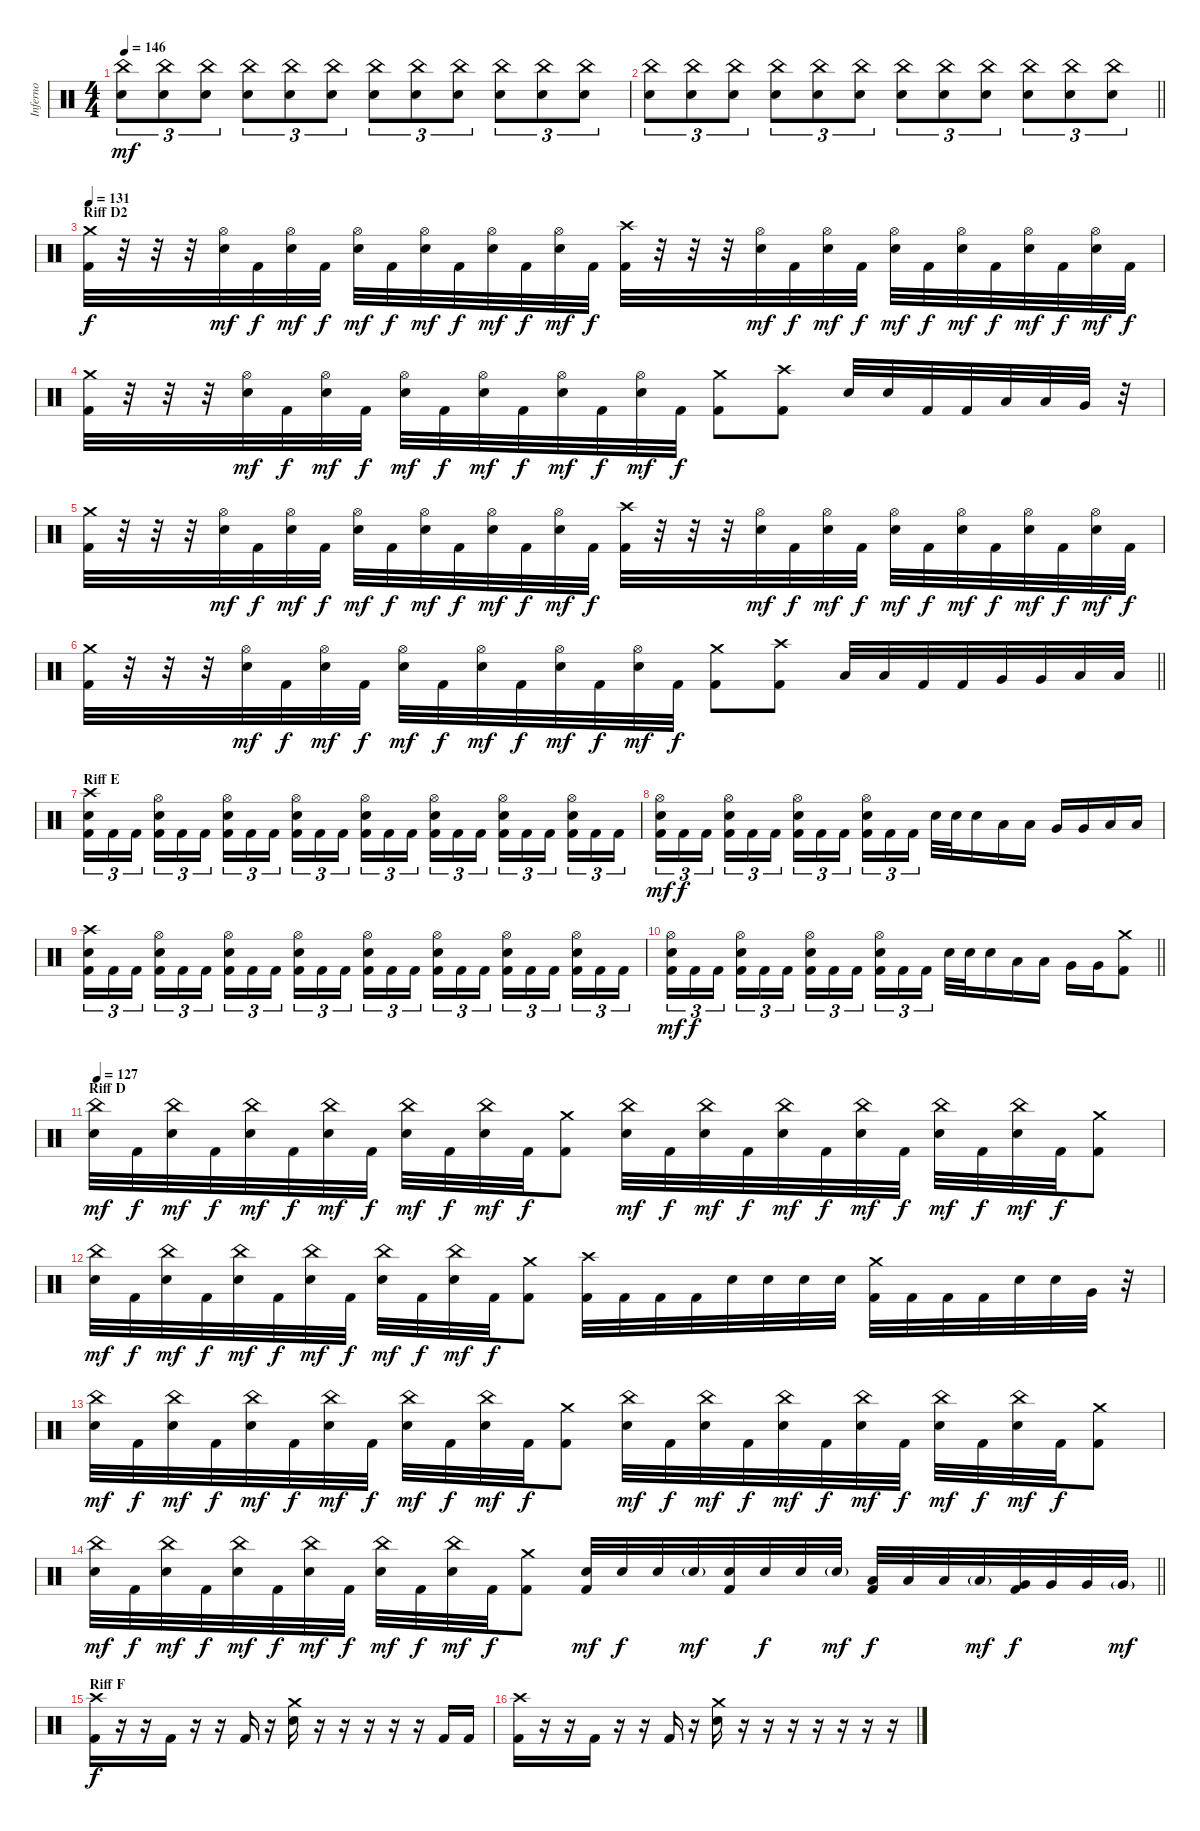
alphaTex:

\track ("Inferno" "Inferno") {instrument percussion}
\staff {score}
\articulation defaults
\ts (4 4)
\tempo 146
\clef neutral
\ks c
("China (hit)" "Snare (hit) 2").8{tu (3 2) dy mf} ("China (hit)" "Snare (hit) 2").8{tu (3 2)} ("China (hit)" "Snare (hit) 2").8{tu (3 2)} ("China (hit)" "Snare (hit) 2").8{tu (3 2)} ("China (hit)" "Snare (hit) 2").8{tu (3 2)} ("China (hit)" "Snare (hit) 2").8{tu (3 2)} ("China (hit)" "Snare (hit) 2").8{tu (3 2)} ("China (hit)" "Snare (hit) 2").8{tu (3 2)} ("China (hit)" "Snare (hit) 2").8{tu (3 2)} ("China (hit)" "Snare (hit) 2").8{tu (3 2)} ("China (hit)" "Snare (hit) 2").8{tu (3 2)} ("China (hit)" "Snare (hit) 2").8{tu (3 2)} |
\barLineRight lightlight
("China (hit)" "Snare (hit) 2").8{tu (3 2)} ("China (hit)" "Snare (hit) 2").8{tu (3 2)} ("China (hit)" "Snare (hit) 2").8{tu (3 2)} ("China (hit)" "Snare (hit) 2").8{tu (3 2)} ("China (hit)" "Snare (hit) 2").8{tu (3 2)} ("China (hit)" "Snare (hit) 2").8{tu (3 2)} ("China (hit)" "Snare (hit) 2").8{tu (3 2)} ("China (hit)" "Snare (hit) 2").8{tu (3 2)} ("China (hit)" "Snare (hit) 2").8{tu (3 2)} ("China (hit)" "Snare (hit) 2").8{tu (3 2)} ("China (hit)" "Snare (hit) 2").8{tu (3 2)} ("China (hit)" "Snare (hit) 2").8{tu (3 2)} |
\section ("" "Riff D2")
\tempo 131
("Crash medium (hit)" "Kick (hit) 2").32{dy f} r.32 r.32 r.32 ("Hi-Hat (open)" "Snare (hit) 2").32{dy mf} "Kick (hit) 2".32{dy f} ("Hi-Hat (open)" "Snare (hit) 2").32{dy mf} "Kick (hit) 2".32{dy f} ("Hi-Hat (open)" "Snare (hit) 2").32{dy mf} "Kick (hit) 2".32{dy f} ("Hi-Hat (open)" "Snare (hit) 2").32{dy mf} "Kick (hit) 2".32{dy f} ("Hi-Hat (open)" "Snare (hit) 2").32{dy mf} "Kick (hit) 2".32{dy f} ("Hi-Hat (open)" "Snare (hit) 2").32{dy mf} "Kick (hit) 2".32{dy f} ("Crash high (hit)" "Kick (hit) 2").32 r.32 r.32 r.32 ("Hi-Hat (open)" "Snare (hit) 2").32{dy mf} "Kick (hit) 2".32{dy f} ("Hi-Hat (open)" "Snare (hit) 2").32{dy mf} "Kick (hit) 2".32{dy f} ("Hi-Hat (open)" "Snare (hit) 2").32{dy mf} "Kick (hit) 2".32{dy f} ("Hi-Hat (open)" "Snare (hit) 2").32{dy mf} "Kick (hit) 2".32{dy f} ("Hi-Hat (open)" "Snare (hit) 2").32{dy mf} "Kick (hit) 2".32{dy f} ("Hi-Hat (open)" "Snare (hit) 2").32{dy mf} "Kick (hit) 2".32{dy f} |
("Crash medium (hit)" "Kick (hit) 2").32 r.32 r.32 r.32 ("Hi-Hat (open)" "Snare (hit) 2").32{dy mf} "Kick (hit) 2".32{dy f} ("Hi-Hat (open)" "Snare (hit) 2").32{dy mf} "Kick (hit) 2".32{dy f} ("Hi-Hat (open)" "Snare (hit) 2").32{dy mf} "Kick (hit) 2".32{dy f} ("Hi-Hat (open)" "Snare (hit) 2").32{dy mf} "Kick (hit) 2".32{dy f} ("Hi-Hat (open)" "Snare (hit) 2").32{dy mf} "Kick (hit) 2".32{dy f} ("Hi-Hat (open)" "Snare (hit) 2").32{dy mf} "Kick (hit) 2".32{dy f} ("Crash medium (hit)" "Kick (hit) 2").8 ("Crash high (hit)" "Kick (hit) 2").8 "Snare (hit) 2".32 "Snare (hit) 2".32 "Kick (hit) 2".32 "Kick (hit) 2".32 "Low Tom (hit)".32 "Low Tom (hit)".32 "Very Low Tom (hit)".32 r.32 |
("Crash medium (hit)" "Kick (hit) 2").32 r.32 r.32 r.32 ("Hi-Hat (open)" "Snare (hit) 2").32{dy mf} "Kick (hit) 2".32{dy f} ("Hi-Hat (open)" "Snare (hit) 2").32{dy mf} "Kick (hit) 2".32{dy f} ("Hi-Hat (open)" "Snare (hit) 2").32{dy mf} "Kick (hit) 2".32{dy f} ("Hi-Hat (open)" "Snare (hit) 2").32{dy mf} "Kick (hit) 2".32{dy f} ("Hi-Hat (open)" "Snare (hit) 2").32{dy mf} "Kick (hit) 2".32{dy f} ("Hi-Hat (open)" "Snare (hit) 2").32{dy mf} "Kick (hit) 2".32{dy f} ("Crash high (hit)" "Kick (hit) 2").32 r.32 r.32 r.32 ("Hi-Hat (open)" "Snare (hit) 2").32{dy mf} "Kick (hit) 2".32{dy f} ("Hi-Hat (open)" "Snare (hit) 2").32{dy mf} "Kick (hit) 2".32{dy f} ("Hi-Hat (open)" "Snare (hit) 2").32{dy mf} "Kick (hit) 2".32{dy f} ("Hi-Hat (open)" "Snare (hit) 2").32{dy mf} "Kick (hit) 2".32{dy f} ("Hi-Hat (open)" "Snare (hit) 2").32{dy mf} "Kick (hit) 2".32{dy f} ("Hi-Hat (open)" "Snare (hit) 2").32{dy mf} "Kick (hit) 2".32{dy f} |
\barLineRight lightlight
("Crash medium (hit)" "Kick (hit) 2").32 r.32 r.32 r.32 ("Hi-Hat (open)" "Snare (hit) 2").32{dy mf} "Kick (hit) 2".32{dy f} ("Hi-Hat (open)" "Snare (hit) 2").32{dy mf} "Kick (hit) 2".32{dy f} ("Hi-Hat (open)" "Snare (hit) 2").32{dy mf} "Kick (hit) 2".32{dy f} ("Hi-Hat (open)" "Snare (hit) 2").32{dy mf} "Kick (hit) 2".32{dy f} ("Hi-Hat (open)" "Snare (hit) 2").32{dy mf} "Kick (hit) 2".32{dy f} ("Hi-Hat (open)" "Snare (hit) 2").32{dy mf} "Kick (hit) 2".32{dy f} ("Crash medium (hit)" "Kick (hit) 2").8 ("Crash high (hit)" "Kick (hit) 2").8 "Low Tom (hit)".32 "Low Tom (hit)".32 "Kick (hit) 2".32 "Kick (hit) 2".32 "Very Low Tom (hit)".32 "Very Low Tom (hit)".32 "Low Floor Tom (hit)".32 "Low Floor Tom (hit)".32 |
\section ("" "Riff E")
("Crash high (hit)" "Snare (hit) 2" "Kick (hit) 2").16{tu (3 2)} "Kick (hit) 2".16{tu (3 2)} "Kick (hit) 2".16{tu (3 2) beam splitsecondary} ("Hi-Hat (open)" "Snare (hit) 2" "Kick (hit) 2").16{tu (3 2)} "Kick (hit) 2".16{tu (3 2)} "Kick (hit) 2".16{tu (3 2)} ("Hi-Hat (open)" "Snare (hit) 2" "Kick (hit) 2").16{tu (3 2)} "Kick (hit) 2".16{tu (3 2)} "Kick (hit) 2".16{tu (3 2) beam splitsecondary} ("Hi-Hat (open)" "Snare (hit) 2" "Kick (hit) 2").16{tu (3 2)} "Kick (hit) 2".16{tu (3 2)} "Kick (hit) 2".16{tu (3 2)} ("Hi-Hat (open)" "Snare (hit) 2" "Kick (hit) 2").16{tu (3 2)} "Kick (hit) 2".16{tu (3 2)} "Kick (hit) 2".16{tu (3 2) beam splitsecondary} ("Hi-Hat (open)" "Snare (hit) 2" "Kick (hit) 2").16{tu (3 2)} "Kick (hit) 2".16{tu (3 2)} "Kick (hit) 2".16{tu (3 2)} ("Hi-Hat (open)" "Snare (hit) 2" "Kick (hit) 2").16{tu (3 2)} "Kick (hit) 2".16{tu (3 2)} "Kick (hit) 2".16{tu (3 2) beam splitsecondary} ("Hi-Hat (open)" "Snare (hit) 2" "Kick (hit) 2").16{tu (3 2)} "Kick (hit) 2".16{tu (3 2)} "Kick (hit) 2".16{tu (3 2)} |
("Hi-Hat (open)" "Snare (hit) 2" "Kick (hit) 2").16{tu (3 2) dy mf} "Kick (hit) 2".16{tu (3 2) dy f} "Kick (hit) 2".16{tu (3 2) beam splitsecondary} ("Hi-Hat (open)" "Snare (hit) 2" "Kick (hit) 2").16{tu (3 2)} "Kick (hit) 2".16{tu (3 2)} "Kick (hit) 2".16{tu (3 2)} ("Hi-Hat (open)" "Snare (hit) 2" "Kick (hit) 2").16{tu (3 2)} "Kick (hit) 2".16{tu (3 2)} "Kick (hit) 2".16{tu (3 2) beam splitsecondary} ("Hi-Hat (open)" "Snare (hit) 2" "Kick (hit) 2").16{tu (3 2)} "Kick (hit) 2".16{tu (3 2)} "Kick (hit) 2".16{tu (3 2)} "Snare (hit) 2".32 "Snare (hit) 2".32 "Snare (hit) 2".16 "Low Tom (hit)".16 "Low Tom (hit)".16 "Very Low Tom (hit)".16 "Very Low Tom (hit)".16 "Low Floor Tom (hit)".16 "Low Floor Tom (hit)".16 |
("Crash high (hit)" "Snare (hit) 2" "Kick (hit) 2").16{tu (3 2)} "Kick (hit) 2".16{tu (3 2)} "Kick (hit) 2".16{tu (3 2) beam splitsecondary} ("Hi-Hat (open)" "Snare (hit) 2" "Kick (hit) 2").16{tu (3 2)} "Kick (hit) 2".16{tu (3 2)} "Kick (hit) 2".16{tu (3 2)} ("Hi-Hat (open)" "Snare (hit) 2" "Kick (hit) 2").16{tu (3 2)} "Kick (hit) 2".16{tu (3 2)} "Kick (hit) 2".16{tu (3 2) beam splitsecondary} ("Hi-Hat (open)" "Snare (hit) 2" "Kick (hit) 2").16{tu (3 2)} "Kick (hit) 2".16{tu (3 2)} "Kick (hit) 2".16{tu (3 2)} ("Hi-Hat (open)" "Snare (hit) 2" "Kick (hit) 2").16{tu (3 2)} "Kick (hit) 2".16{tu (3 2)} "Kick (hit) 2".16{tu (3 2) beam splitsecondary} ("Hi-Hat (open)" "Snare (hit) 2" "Kick (hit) 2").16{tu (3 2)} "Kick (hit) 2".16{tu (3 2)} "Kick (hit) 2".16{tu (3 2)} ("Hi-Hat (open)" "Snare (hit) 2" "Kick (hit) 2").16{tu (3 2)} "Kick (hit) 2".16{tu (3 2)} "Kick (hit) 2".16{tu (3 2) beam splitsecondary} ("Hi-Hat (open)" "Snare (hit) 2" "Kick (hit) 2").16{tu (3 2)} "Kick (hit) 2".16{tu (3 2)} "Kick (hit) 2".16{tu (3 2)} |
\barLineRight lightlight
("Hi-Hat (open)" "Snare (hit) 2" "Kick (hit) 2").16{tu (3 2) dy mf} "Kick (hit) 2".16{tu (3 2) dy f} "Kick (hit) 2".16{tu (3 2) beam splitsecondary} ("Hi-Hat (open)" "Snare (hit) 2" "Kick (hit) 2").16{tu (3 2)} "Kick (hit) 2".16{tu (3 2)} "Kick (hit) 2".16{tu (3 2)} ("Hi-Hat (open)" "Snare (hit) 2" "Kick (hit) 2").16{tu (3 2)} "Kick (hit) 2".16{tu (3 2)} "Kick (hit) 2".16{tu (3 2) beam splitsecondary} ("Hi-Hat (open)" "Snare (hit) 2" "Kick (hit) 2").16{tu (3 2)} "Kick (hit) 2".16{tu (3 2)} "Kick (hit) 2".16{tu (3 2)} "Snare (hit) 2".32 "Snare (hit) 2".32 "Snare (hit) 2".16 "Low Tom (hit)".16 "Low Tom (hit)".16 "Very Low Tom (hit)".16 "Very Low Tom (hit)".16 ("Crash medium (hit)" "Kick (hit) 2").8 |
\section ("" "Riff D")
\tempo 127
("China (hit)" "Snare (hit) 2").32{dy mf} "Kick (hit) 2".32{dy f} ("China (hit)" "Snare (hit) 2").32{dy mf} "Kick (hit) 2".32{dy f} ("China (hit)" "Snare (hit) 2").32{dy mf} "Kick (hit) 2".32{dy f} ("China (hit)" "Snare (hit) 2").32{dy mf} "Kick (hit) 2".32{dy f} ("China (hit)" "Snare (hit) 2").32{dy mf} "Kick (hit) 2".32{dy f} ("China (hit)" "Snare (hit) 2").32{dy mf} "Kick (hit) 2".32{dy f} ("Crash medium (hit)" "Kick (hit) 2").8 ("China (hit)" "Snare (hit) 2").32{dy mf} "Kick (hit) 2".32{dy f} ("China (hit)" "Snare (hit) 2").32{dy mf} "Kick (hit) 2".32{dy f} ("China (hit)" "Snare (hit) 2").32{dy mf} "Kick (hit) 2".32{dy f} ("China (hit)" "Snare (hit) 2").32{dy mf} "Kick (hit) 2".32{dy f} ("China (hit)" "Snare (hit) 2").32{dy mf} "Kick (hit) 2".32{dy f} ("China (hit)" "Snare (hit) 2").32{dy mf} "Kick (hit) 2".32{dy f} ("Crash medium (hit)" "Kick (hit) 2").8 |
("China (hit)" "Snare (hit) 2").32{dy mf} "Kick (hit) 2".32{dy f} ("China (hit)" "Snare (hit) 2").32{dy mf} "Kick (hit) 2".32{dy f} ("China (hit)" "Snare (hit) 2").32{dy mf} "Kick (hit) 2".32{dy f} ("China (hit)" "Snare (hit) 2").32{dy mf} "Kick (hit) 2".32{dy f} ("China (hit)" "Snare (hit) 2").32{dy mf} "Kick (hit) 2".32{dy f} ("China (hit)" "Snare (hit) 2").32{dy mf} "Kick (hit) 2".32{dy f} ("Crash medium (hit)" "Kick (hit) 2").8 ("Crash high (hit)" "Kick (hit) 2").32 "Kick (hit) 2".32 "Kick (hit) 2".32 "Kick (hit) 2".32 "Snare (hit) 2".32 "Snare (hit) 2".32 "Snare (hit) 2".32 "Snare (hit) 2".32 ("Crash medium (hit)" "Kick (hit) 2").32 "Kick (hit) 2".32 "Kick (hit) 2".32 "Kick (hit) 2".32 "Snare (hit) 2".32 "Snare (hit) 2".32 "Very Low Tom (hit)".32 r.32 |
("China (hit)" "Snare (hit) 2").32{dy mf} "Kick (hit) 2".32{dy f} ("China (hit)" "Snare (hit) 2").32{dy mf} "Kick (hit) 2".32{dy f} ("China (hit)" "Snare (hit) 2").32{dy mf} "Kick (hit) 2".32{dy f} ("China (hit)" "Snare (hit) 2").32{dy mf} "Kick (hit) 2".32{dy f} ("China (hit)" "Snare (hit) 2").32{dy mf} "Kick (hit) 2".32{dy f} ("China (hit)" "Snare (hit) 2").32{dy mf} "Kick (hit) 2".32{dy f} ("Crash medium (hit)" "Kick (hit) 2").8 ("China (hit)" "Snare (hit) 2").32{dy mf} "Kick (hit) 2".32{dy f} ("China (hit)" "Snare (hit) 2").32{dy mf} "Kick (hit) 2".32{dy f} ("China (hit)" "Snare (hit) 2").32{dy mf} "Kick (hit) 2".32{dy f} ("China (hit)" "Snare (hit) 2").32{dy mf} "Kick (hit) 2".32{dy f} ("China (hit)" "Snare (hit) 2").32{dy mf} "Kick (hit) 2".32{dy f} ("China (hit)" "Snare (hit) 2").32{dy mf} "Kick (hit) 2".32{dy f} ("Crash medium (hit)" "Kick (hit) 2").8 |
\barLineRight lightlight
("China (hit)" "Snare (hit) 2").32{dy mf} "Kick (hit) 2".32{dy f} ("China (hit)" "Snare (hit) 2").32{dy mf} "Kick (hit) 2".32{dy f} ("China (hit)" "Snare (hit) 2").32{dy mf} "Kick (hit) 2".32{dy f} ("China (hit)" "Snare (hit) 2").32{dy mf} "Kick (hit) 2".32{dy f} ("China (hit)" "Snare (hit) 2").32{dy mf} "Kick (hit) 2".32{dy f} ("China (hit)" "Snare (hit) 2").32{dy mf} "Kick (hit) 2".32{dy f} ("Crash medium (hit)" "Kick (hit) 2").8 ("Snare (hit) 2" "Kick (hit) 2").32{dy mf} "Snare (hit) 2".32{dy f} "Snare (hit) 2".32 "Snare (hit) 2"{g}.32{dy mf} ("Snare (hit) 2" "Kick (hit) 2").32 "Snare (hit) 2".32{dy f} "Snare (hit) 2".32 "Snare (hit) 2"{g}.32{dy mf} ("Low Tom (hit)" "Kick (hit) 2").32{dy f} "Low Tom (hit)".32 "Low Tom (hit)".32 "Low Tom (hit)"{g}.32{dy mf} ("Very Low Tom (hit)" "Kick (hit) 2").32{dy f} "Very Low Tom (hit)".32 "Very Low Tom (hit)".32 "Very Low Tom (hit)"{g}.32{dy mf} |
\section ("" "Riff F")
("Crash high (hit)" "Kick (hit) 2").16{dy f} r.16 r.16 "Kick (hit) 2".16 r.16 r.16 "Kick (hit) 2".16 r.16 ("Crash medium (hit)" "Snare (hit) 2").16 r.16 r.16 r.16 r.16 r.16 "Kick (hit) 2".16 "Kick (hit) 2".16 |
("Crash high (hit)" "Kick (hit) 2").16 r.16 r.16 "Kick (hit) 2".16 r.16 r.16 "Kick (hit) 2".16 r.16 ("Crash medium (hit)" "Snare (hit) 2").16 r.16 r.16 r.16 r.16 r.16 r.16 r.16
